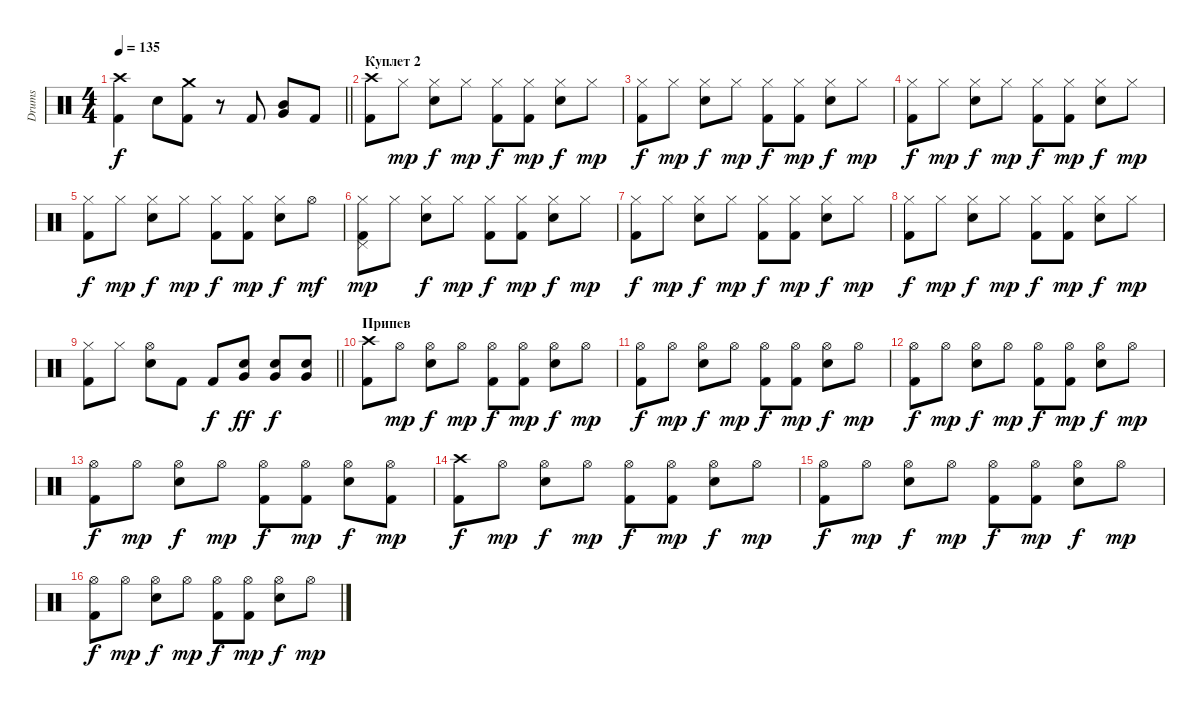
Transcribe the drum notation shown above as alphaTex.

\track ("Drums" "Drums") {instrument percussion}
\staff {score}
\articulation defaults
\ts (4 4)
\tempo 135
\clef neutral
\barLineRight lightlight
\ks aminor
("Crash high (hit)" "Kick (hit) 2").4{dy f} "Electric Snare (hit)".8 ("Crash medium (hit)" "Kick (hit) 2").8 r.8 "Kick (hit) 2".8 ("Mid Tom (hit)" "Very Low Tom (hit)").8 "Kick (hit) 2".8 |
\section ("" "Куплет 2")
("Crash high (hit)" "Kick (hit) 2").8 "Hi-Hat (closed)".8{dy mp} ("Hi-Hat (closed)" "Electric Snare (hit)").8{dy f} "Hi-Hat (closed)".8{dy mp} ("Hi-Hat (closed)" "Kick (hit) 2").8{dy f} ("Hi-Hat (closed)" "Kick (hit) 2").8{dy mp} ("Hi-Hat (closed)" "Electric Snare (hit)").8{dy f} "Hi-Hat (closed)".8{dy mp} |
("Hi-Hat (closed)" "Kick (hit) 2").8{dy f} "Hi-Hat (closed)".8{dy mp} ("Hi-Hat (closed)" "Electric Snare (hit)").8{dy f} "Hi-Hat (closed)".8{dy mp} ("Hi-Hat (closed)" "Kick (hit) 2").8{dy f} ("Hi-Hat (closed)" "Kick (hit) 2").8{dy mp} ("Hi-Hat (closed)" "Electric Snare (hit)").8{dy f} "Hi-Hat (closed)".8{dy mp} |
("Hi-Hat (closed)" "Kick (hit) 2").8{dy f} "Hi-Hat (closed)".8{dy mp} ("Hi-Hat (closed)" "Electric Snare (hit)").8{dy f} "Hi-Hat (closed)".8{dy mp} ("Hi-Hat (closed)" "Kick (hit) 2").8{dy f} ("Hi-Hat (closed)" "Kick (hit) 2").8{dy mp} ("Hi-Hat (closed)" "Electric Snare (hit)").8{dy f} "Hi-Hat (closed)".8{dy mp} |
("Hi-Hat (closed)" "Kick (hit) 2").8{dy f} "Hi-Hat (closed)".8{dy mp} ("Hi-Hat (closed)" "Electric Snare (hit)").8{dy f} "Hi-Hat (closed)".8{dy mp} ("Hi-Hat (closed)" "Kick (hit) 2").8{dy f} ("Hi-Hat (closed)" "Kick (hit) 2").8{dy mp} ("Hi-Hat (closed)" "Electric Snare (hit)").8{dy f} "Hi-Hat (open)".8{dy mf} |
("Hi-Hat (closed)" "Kick (hit) 2" "Pedal Hi-Hat (hit)").8{dy mp} "Hi-Hat (closed)".8 ("Hi-Hat (closed)" "Electric Snare (hit)").8{dy f} "Hi-Hat (closed)".8{dy mp} ("Hi-Hat (closed)" "Kick (hit) 2").8{dy f} ("Hi-Hat (closed)" "Kick (hit) 2").8{dy mp} ("Hi-Hat (closed)" "Electric Snare (hit)").8{dy f} "Hi-Hat (closed)".8{dy mp} |
("Hi-Hat (closed)" "Kick (hit) 2").8{dy f} "Hi-Hat (closed)".8{dy mp} ("Hi-Hat (closed)" "Electric Snare (hit)").8{dy f} "Hi-Hat (closed)".8{dy mp} ("Hi-Hat (closed)" "Kick (hit) 2").8{dy f} ("Hi-Hat (closed)" "Kick (hit) 2").8{dy mp} ("Hi-Hat (closed)" "Electric Snare (hit)").8{dy f} "Hi-Hat (closed)".8{dy mp} |
("Hi-Hat (closed)" "Kick (hit) 2").8{dy f} "Hi-Hat (closed)".8{dy mp} ("Hi-Hat (closed)" "Electric Snare (hit)").8{dy f} "Hi-Hat (closed)".8{dy mp} ("Hi-Hat (closed)" "Kick (hit) 2").8{dy f} ("Hi-Hat (closed)" "Kick (hit) 2").8{dy mp} ("Hi-Hat (closed)" "Electric Snare (hit)").8{dy f} "Hi-Hat (closed)".8{dy mp} |
\barLineRight lightlight
("Hi-Hat (closed)" "Kick (hit) 2").8 "Hi-Hat (closed)".8 ("Hi-Hat (open)" "Electric Snare (hit)").8 "Kick (hit) 2".8 "Kick (hit) 2".8{dy f} ("Electric Snare (hit)" "Very Low Tom (hit)").8{dy ff} ("Electric Snare (hit)" "Very Low Tom (hit)").8{dy f} ("Electric Snare (hit)" "Very Low Tom (hit)").8 |
\section ("" "Припев")
("Crash high (hit)" "Kick (hit) 2").8 "Hi-Hat (open)".8{dy mp} ("Hi-Hat (open)" "Electric Snare (hit)").8{dy f} "Hi-Hat (open)".8{dy mp} ("Hi-Hat (open)" "Kick (hit) 2").8{dy f} ("Hi-Hat (open)" "Kick (hit) 2").8{dy mp} ("Hi-Hat (open)" "Electric Snare (hit)").8{dy f} "Hi-Hat (open)".8{dy mp} |
("Hi-Hat (open)" "Kick (hit) 2").8{dy f} "Hi-Hat (open)".8{dy mp} ("Hi-Hat (open)" "Electric Snare (hit)").8{dy f} "Hi-Hat (open)".8{dy mp} ("Hi-Hat (open)" "Kick (hit) 2").8{dy f} ("Hi-Hat (open)" "Kick (hit) 2").8{dy mp} ("Hi-Hat (open)" "Electric Snare (hit)").8{dy f} "Hi-Hat (open)".8{dy mp} |
("Hi-Hat (open)" "Kick (hit) 2").8{dy f} "Hi-Hat (open)".8{dy mp} ("Hi-Hat (open)" "Electric Snare (hit)").8{dy f} "Hi-Hat (open)".8{dy mp} ("Hi-Hat (open)" "Kick (hit) 2").8{dy f} ("Hi-Hat (open)" "Kick (hit) 2").8{dy mp} ("Hi-Hat (open)" "Electric Snare (hit)").8{dy f} "Hi-Hat (open)".8{dy mp} |
("Hi-Hat (open)" "Kick (hit) 2").8{dy f} "Hi-Hat (open)".8{dy mp} ("Hi-Hat (open)" "Electric Snare (hit)").8{dy f} "Hi-Hat (open)".8{dy mp} ("Hi-Hat (open)" "Kick (hit) 2").8{dy f} ("Hi-Hat (open)" "Kick (hit) 2").8{dy mp} ("Hi-Hat (open)" "Electric Snare (hit)").8{dy f} ("Hi-Hat (open)" "Kick (hit) 2").8{dy mp} |
("Crash high (hit)" "Kick (hit) 2").8{dy f} "Hi-Hat (open)".8{dy mp} ("Hi-Hat (open)" "Electric Snare (hit)").8{dy f} "Hi-Hat (open)".8{dy mp} ("Hi-Hat (open)" "Kick (hit) 2").8{dy f} ("Hi-Hat (open)" "Kick (hit) 2").8{dy mp} ("Hi-Hat (open)" "Electric Snare (hit)").8{dy f} "Hi-Hat (open)".8{dy mp} |
("Hi-Hat (open)" "Kick (hit) 2").8{dy f} "Hi-Hat (open)".8{dy mp} ("Hi-Hat (open)" "Electric Snare (hit)").8{dy f} "Hi-Hat (open)".8{dy mp} ("Hi-Hat (open)" "Kick (hit) 2").8{dy f} ("Hi-Hat (open)" "Kick (hit) 2").8{dy mp} ("Hi-Hat (open)" "Electric Snare (hit)").8{dy f} "Hi-Hat (open)".8{dy mp} |
("Hi-Hat (open)" "Kick (hit) 2").8{dy f} "Hi-Hat (open)".8{dy mp} ("Hi-Hat (open)" "Electric Snare (hit)").8{dy f} "Hi-Hat (open)".8{dy mp} ("Hi-Hat (open)" "Kick (hit) 2").8{dy f} ("Hi-Hat (open)" "Kick (hit) 2").8{dy mp} ("Hi-Hat (open)" "Electric Snare (hit)").8{dy f} "Hi-Hat (open)".8{dy mp}
